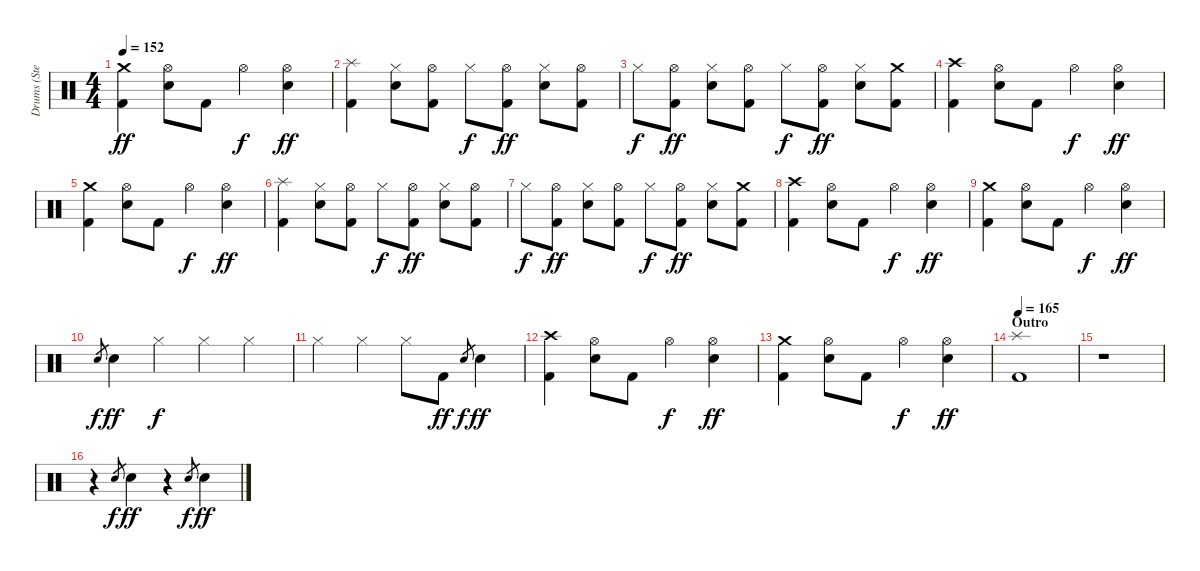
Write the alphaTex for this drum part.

\track ("Drums (Steven)" "Drums (Ste") {instrument percussion}
\staff {score}
\articulation defaults
\ts (4 4)
\tempo 152
\clef neutral
\ks c
("Crash medium (hit)" "Kick (hit) 2").4{dy ff} ("Hi-Hat (open)" "Snare (hit) 2").8 "Kick (hit) 2".8 "Hi-Hat (open)".4{dy f} ("Hi-Hat (open)" "Snare (hit) 2").4{dy ff} |
("Splash (hit)" "Kick (hit) 2").4 ("Hi-Hat (closed)" "Snare (hit) 2").8 ("Hi-Hat (open)" "Kick (hit) 2").8 "Hi-Hat (closed)".8{dy f} ("Hi-Hat (open)" "Kick (hit) 2").8{dy ff} ("Hi-Hat (closed)" "Snare (hit) 2").8 ("Hi-Hat (open)" "Kick (hit) 2").8 |
"Hi-Hat (closed)".8{dy f} ("Hi-Hat (open)" "Kick (hit) 2").8{dy ff} ("Hi-Hat (closed)" "Snare (hit) 2").8 ("Hi-Hat (open)" "Kick (hit) 2").8 "Hi-Hat (closed)".8{dy f} ("Hi-Hat (open)" "Kick (hit) 2").8{dy ff} ("Hi-Hat (closed)" "Snare (hit) 2").8 ("Crash medium (hit)" "Kick (hit) 2").8 |
("Crash high (hit)" "Kick (hit) 2").4 ("Hi-Hat (open)" "Snare (hit) 2").8 "Kick (hit) 2".8 "Hi-Hat (open)".4{dy f} ("Hi-Hat (open)" "Snare (hit) 2").4{dy ff} |
("Crash medium (hit)" "Kick (hit) 2").4 ("Hi-Hat (open)" "Snare (hit) 2").8 "Kick (hit) 2".8 "Hi-Hat (open)".4{dy f} ("Hi-Hat (open)" "Snare (hit) 2").4{dy ff} |
("Splash (hit)" "Kick (hit) 2").4 ("Hi-Hat (closed)" "Snare (hit) 2").8 ("Hi-Hat (open)" "Kick (hit) 2").8 "Hi-Hat (closed)".8{dy f} ("Hi-Hat (open)" "Kick (hit) 2").8{dy ff} ("Hi-Hat (closed)" "Snare (hit) 2").8 ("Hi-Hat (open)" "Kick (hit) 2").8 |
"Hi-Hat (closed)".8{dy f} ("Hi-Hat (open)" "Kick (hit) 2").8{dy ff} ("Hi-Hat (closed)" "Snare (hit) 2").8 ("Hi-Hat (open)" "Kick (hit) 2").8 "Hi-Hat (closed)".8{dy f} ("Hi-Hat (open)" "Kick (hit) 2").8{dy ff} ("Hi-Hat (closed)" "Snare (hit) 2").8 ("Crash medium (hit)" "Kick (hit) 2").8 |
("Crash high (hit)" "Kick (hit) 2").4 ("Hi-Hat (open)" "Snare (hit) 2").8 "Kick (hit) 2".8 "Hi-Hat (open)".4{dy f} ("Hi-Hat (open)" "Snare (hit) 2").4{dy ff} |
("Crash medium (hit)" "Kick (hit) 2").4 ("Hi-Hat (open)" "Snare (hit) 2").8 "Kick (hit) 2".8 "Hi-Hat (open)".4{dy f} ("Hi-Hat (open)" "Snare (hit) 2").4{dy ff} |
"Snare (hit) 2".8{gr dy f} "Snare (hit) 2".4{dy ff} "Hi-Hat (closed)".4{dy f} "Hi-Hat (closed)".4 "Hi-Hat (closed)".4 |
"Hi-Hat (closed)".4 "Hi-Hat (closed)".4 "Hi-Hat (closed)".8 "Kick (hit) 2".8{dy ff} "Snare (hit) 2".8{gr dy f} "Snare (hit) 2".4{dy ff} |
("Crash high (hit)" "Kick (hit) 2").4 ("Hi-Hat (open)" "Snare (hit) 2").8 "Kick (hit) 2".8 "Hi-Hat (open)".4{dy f} ("Hi-Hat (open)" "Snare (hit) 2").4{dy ff} |
("Crash medium (hit)" "Kick (hit) 2").4 ("Hi-Hat (open)" "Snare (hit) 2").8 "Kick (hit) 2".8 "Hi-Hat (open)".4{dy f} ("Hi-Hat (open)" "Snare (hit) 2").4{dy ff} |
\section ("" "Outro")
\tempo 165
("Splash (hit)" "Kick (hit) 2").1 |
r.1 |
r.4 "Snare (hit) 2".8{gr dy f} "Snare (hit) 2".4{dy ff} r.4 "Snare (hit) 2".8{gr dy f} "Snare (hit) 2".4{dy ff}
